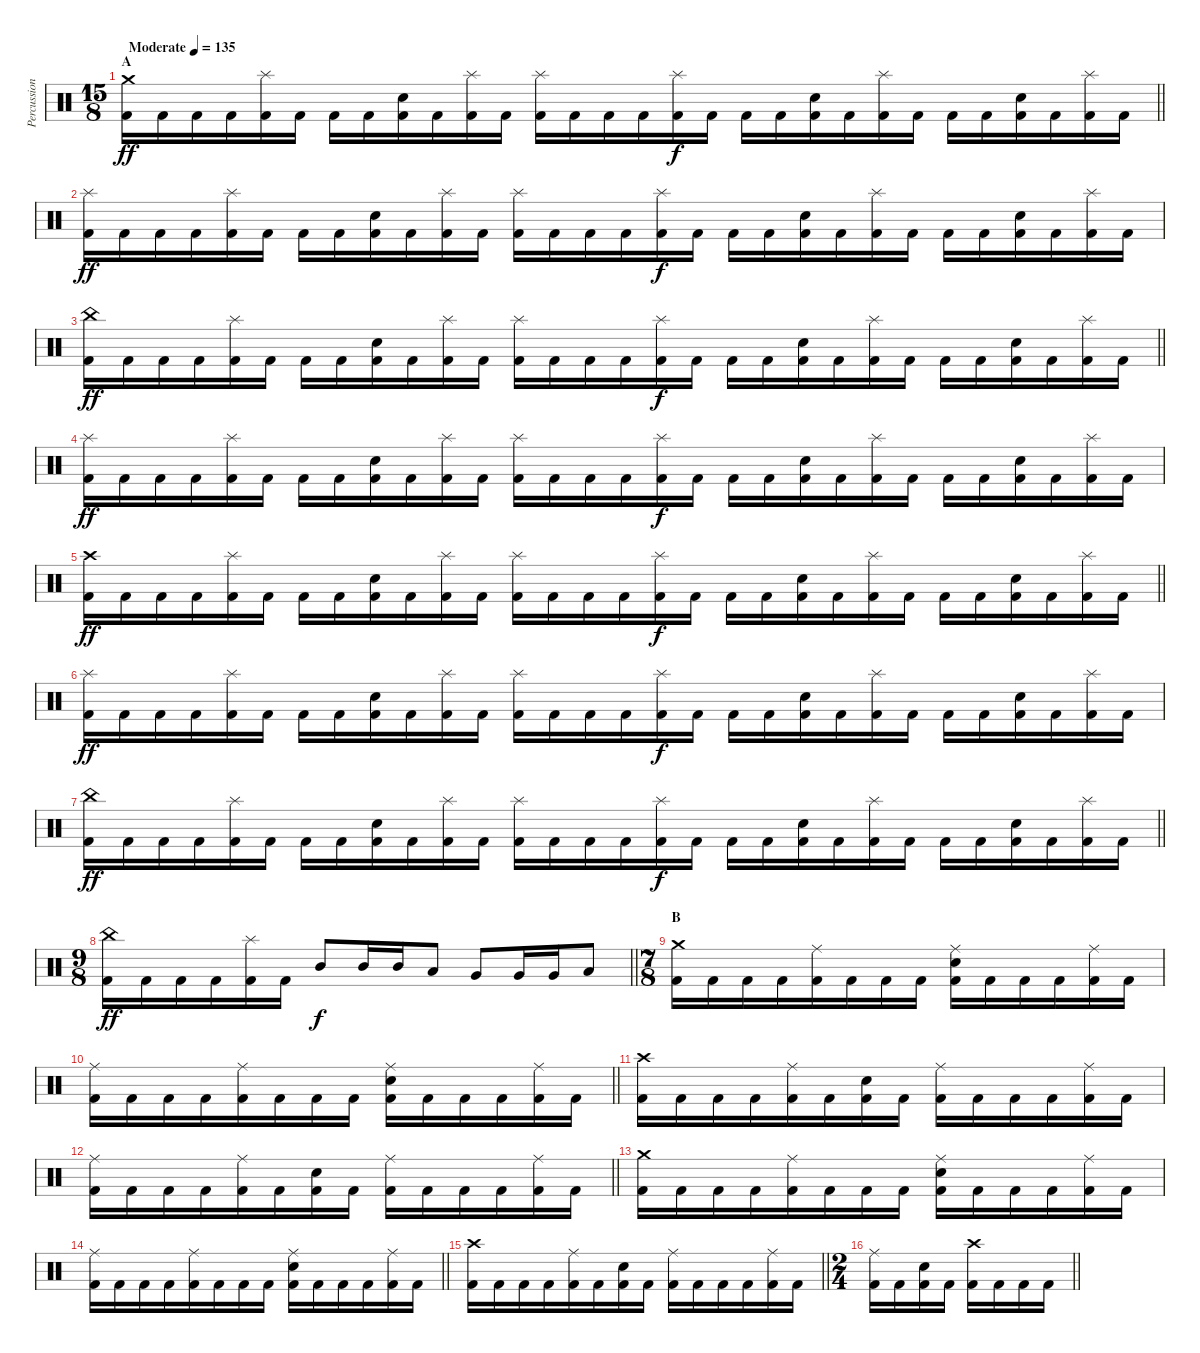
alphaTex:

\track ("Percussion" "Percussion") {instrument percussion}
\staff {score}
\articulation defaults
\ts (15 8)
\section ("" "A")
\tempo (135 "Moderate")
\clef neutral
\barLineRight lightlight
\ks c
("Crash medium (hit)" "Kick (hit) 2").16{dy ff} "Kick (hit) 2".16 "Kick (hit) 2".16 "Kick (hit) 2".16 ("Splash (hit)" "Kick (hit) 2").16 "Kick (hit) 2".16 "Kick (hit) 2".16 "Kick (hit) 2".16 ("Snare (hit) 2" "Kick (hit) 2").16 "Kick (hit) 2".16 ("Splash (hit)" "Kick (hit) 2").16 "Kick (hit) 2".16 ("Splash (hit)" "Kick (hit) 2").16 "Kick (hit) 2".16 "Kick (hit) 2".16 "Kick (hit) 2".16 ("Splash (hit)" "Kick (hit) 2").16{dy f} "Kick (hit) 2".16 "Kick (hit) 2".16 "Kick (hit) 2".16 ("Snare (hit) 2" "Kick (hit) 2").16 "Kick (hit) 2".16 ("Splash (hit)" "Kick (hit) 2").16 "Kick (hit) 2".16 "Kick (hit) 2".16 "Kick (hit) 2".16 ("Snare (hit) 2" "Kick (hit) 2").16 "Kick (hit) 2".16 ("Splash (hit)" "Kick (hit) 2").16 "Kick (hit) 2".16 |
("Splash (hit)" "Kick (hit) 2").16{dy ff} "Kick (hit) 2".16 "Kick (hit) 2".16 "Kick (hit) 2".16 ("Splash (hit)" "Kick (hit) 2").16 "Kick (hit) 2".16 "Kick (hit) 2".16 "Kick (hit) 2".16 ("Snare (hit) 2" "Kick (hit) 2").16 "Kick (hit) 2".16 ("Splash (hit)" "Kick (hit) 2").16 "Kick (hit) 2".16 ("Splash (hit)" "Kick (hit) 2").16 "Kick (hit) 2".16 "Kick (hit) 2".16 "Kick (hit) 2".16 ("Splash (hit)" "Kick (hit) 2").16{dy f} "Kick (hit) 2".16 "Kick (hit) 2".16 "Kick (hit) 2".16 ("Snare (hit) 2" "Kick (hit) 2").16 "Kick (hit) 2".16 ("Splash (hit)" "Kick (hit) 2").16 "Kick (hit) 2".16 "Kick (hit) 2".16 "Kick (hit) 2".16 ("Snare (hit) 2" "Kick (hit) 2").16 "Kick (hit) 2".16 ("Splash (hit)" "Kick (hit) 2").16 "Kick (hit) 2".16 |
\barLineRight lightlight
("China (hit)" "Kick (hit) 2").16{dy ff} "Kick (hit) 2".16 "Kick (hit) 2".16 "Kick (hit) 2".16 ("Splash (hit)" "Kick (hit) 2").16 "Kick (hit) 2".16 "Kick (hit) 2".16 "Kick (hit) 2".16 ("Snare (hit) 2" "Kick (hit) 2").16 "Kick (hit) 2".16 ("Splash (hit)" "Kick (hit) 2").16 "Kick (hit) 2".16 ("Splash (hit)" "Kick (hit) 2").16 "Kick (hit) 2".16 "Kick (hit) 2".16 "Kick (hit) 2".16 ("Splash (hit)" "Kick (hit) 2").16{dy f} "Kick (hit) 2".16 "Kick (hit) 2".16 "Kick (hit) 2".16 ("Snare (hit) 2" "Kick (hit) 2").16 "Kick (hit) 2".16 ("Splash (hit)" "Kick (hit) 2").16 "Kick (hit) 2".16 "Kick (hit) 2".16 "Kick (hit) 2".16 ("Snare (hit) 2" "Kick (hit) 2").16 "Kick (hit) 2".16 ("Splash (hit)" "Kick (hit) 2").16 "Kick (hit) 2".16 |
("Splash (hit)" "Kick (hit) 2").16{dy ff} "Kick (hit) 2".16 "Kick (hit) 2".16 "Kick (hit) 2".16 ("Splash (hit)" "Kick (hit) 2").16 "Kick (hit) 2".16 "Kick (hit) 2".16 "Kick (hit) 2".16 ("Snare (hit) 2" "Kick (hit) 2").16 "Kick (hit) 2".16 ("Splash (hit)" "Kick (hit) 2").16 "Kick (hit) 2".16 ("Splash (hit)" "Kick (hit) 2").16 "Kick (hit) 2".16 "Kick (hit) 2".16 "Kick (hit) 2".16 ("Splash (hit)" "Kick (hit) 2").16{dy f} "Kick (hit) 2".16 "Kick (hit) 2".16 "Kick (hit) 2".16 ("Snare (hit) 2" "Kick (hit) 2").16 "Kick (hit) 2".16 ("Splash (hit)" "Kick (hit) 2").16 "Kick (hit) 2".16 "Kick (hit) 2".16 "Kick (hit) 2".16 ("Snare (hit) 2" "Kick (hit) 2").16 "Kick (hit) 2".16 ("Splash (hit)" "Kick (hit) 2").16 "Kick (hit) 2".16 |
\barLineRight lightlight
("Crash high (hit)" "Kick (hit) 2").16{dy ff} "Kick (hit) 2".16 "Kick (hit) 2".16 "Kick (hit) 2".16 ("Splash (hit)" "Kick (hit) 2").16 "Kick (hit) 2".16 "Kick (hit) 2".16 "Kick (hit) 2".16 ("Snare (hit) 2" "Kick (hit) 2").16 "Kick (hit) 2".16 ("Splash (hit)" "Kick (hit) 2").16 "Kick (hit) 2".16 ("Splash (hit)" "Kick (hit) 2").16 "Kick (hit) 2".16 "Kick (hit) 2".16 "Kick (hit) 2".16 ("Splash (hit)" "Kick (hit) 2").16{dy f} "Kick (hit) 2".16 "Kick (hit) 2".16 "Kick (hit) 2".16 ("Snare (hit) 2" "Kick (hit) 2").16 "Kick (hit) 2".16 ("Splash (hit)" "Kick (hit) 2").16 "Kick (hit) 2".16 "Kick (hit) 2".16 "Kick (hit) 2".16 ("Snare (hit) 2" "Kick (hit) 2").16 "Kick (hit) 2".16 ("Splash (hit)" "Kick (hit) 2").16 "Kick (hit) 2".16 |
("Splash (hit)" "Kick (hit) 2").16{dy ff} "Kick (hit) 2".16 "Kick (hit) 2".16 "Kick (hit) 2".16 ("Splash (hit)" "Kick (hit) 2").16 "Kick (hit) 2".16 "Kick (hit) 2".16 "Kick (hit) 2".16 ("Snare (hit) 2" "Kick (hit) 2").16 "Kick (hit) 2".16 ("Splash (hit)" "Kick (hit) 2").16 "Kick (hit) 2".16 ("Splash (hit)" "Kick (hit) 2").16 "Kick (hit) 2".16 "Kick (hit) 2".16 "Kick (hit) 2".16 ("Splash (hit)" "Kick (hit) 2").16{dy f} "Kick (hit) 2".16 "Kick (hit) 2".16 "Kick (hit) 2".16 ("Snare (hit) 2" "Kick (hit) 2").16 "Kick (hit) 2".16 ("Splash (hit)" "Kick (hit) 2").16 "Kick (hit) 2".16 "Kick (hit) 2".16 "Kick (hit) 2".16 ("Snare (hit) 2" "Kick (hit) 2").16 "Kick (hit) 2".16 ("Splash (hit)" "Kick (hit) 2").16 "Kick (hit) 2".16 |
\barLineRight lightlight
("China (hit)" "Kick (hit) 2").16{dy ff} "Kick (hit) 2".16 "Kick (hit) 2".16 "Kick (hit) 2".16 ("Splash (hit)" "Kick (hit) 2").16 "Kick (hit) 2".16 "Kick (hit) 2".16 "Kick (hit) 2".16 ("Snare (hit) 2" "Kick (hit) 2").16 "Kick (hit) 2".16 ("Splash (hit)" "Kick (hit) 2").16 "Kick (hit) 2".16 ("Splash (hit)" "Kick (hit) 2").16 "Kick (hit) 2".16 "Kick (hit) 2".16 "Kick (hit) 2".16 ("Splash (hit)" "Kick (hit) 2").16{dy f} "Kick (hit) 2".16 "Kick (hit) 2".16 "Kick (hit) 2".16 ("Snare (hit) 2" "Kick (hit) 2").16 "Kick (hit) 2".16 ("Splash (hit)" "Kick (hit) 2").16 "Kick (hit) 2".16 "Kick (hit) 2".16 "Kick (hit) 2".16 ("Snare (hit) 2" "Kick (hit) 2").16 "Kick (hit) 2".16 ("Splash (hit)" "Kick (hit) 2").16 "Kick (hit) 2".16 |
\ts (9 8)
\barLineRight lightlight
("China (hit)" "Kick (hit) 2").16{dy ff} "Kick (hit) 2".16 "Kick (hit) 2".16 "Kick (hit) 2".16 ("Splash (hit)" "Kick (hit) 2").16 "Kick (hit) 2".16 "Mid Tom (hit)".8{dy f} "Mid Tom (hit)".16 "Mid Tom (hit)".16 "Low Tom (hit)".8 "Very Low Tom (hit)".8 "Very Low Tom (hit)".16 "Very Low Tom (hit)".16 "Low Floor Tom (hit)".8 |
\ts (7 8)
\section ("" "B")
("Crash medium (hit)" "Kick (hit) 2").16 "Kick (hit) 2".16 "Kick (hit) 2".16 "Kick (hit) 2".16 ("Ride (middle)" "Kick (hit) 2").16 "Kick (hit) 2".16 "Kick (hit) 2".16 "Kick (hit) 2".16 ("Ride (middle)" "Snare (hit) 2" "Kick (hit) 2").16 "Kick (hit) 2".16 "Kick (hit) 2".16 "Kick (hit) 2".16 ("Ride (middle)" "Kick (hit) 2").16 "Kick (hit) 2".16 |
\barLineRight lightlight
("Ride (middle)" "Kick (hit) 2").16 "Kick (hit) 2".16 "Kick (hit) 2".16 "Kick (hit) 2".16 ("Ride (middle)" "Kick (hit) 2").16 "Kick (hit) 2".16 "Kick (hit) 2".16 "Kick (hit) 2".16 ("Ride (middle)" "Snare (hit) 2" "Kick (hit) 2").16 "Kick (hit) 2".16 "Kick (hit) 2".16 "Kick (hit) 2".16 ("Ride (middle)" "Kick (hit) 2").16 "Kick (hit) 2".16 |
("Crash high (hit)" "Kick (hit) 2").16 "Kick (hit) 2".16 "Kick (hit) 2".16 "Kick (hit) 2".16 ("Ride (middle)" "Kick (hit) 2").16 "Kick (hit) 2".16 ("Snare (hit) 2" "Kick (hit) 2").16 "Kick (hit) 2".16 ("Ride (middle)" "Kick (hit) 2").16 "Kick (hit) 2".16 "Kick (hit) 2".16 "Kick (hit) 2".16 ("Ride (middle)" "Kick (hit) 2").16 "Kick (hit) 2".16 |
\barLineRight lightlight
("Ride (middle)" "Kick (hit) 2").16 "Kick (hit) 2".16 "Kick (hit) 2".16 "Kick (hit) 2".16 ("Ride (middle)" "Kick (hit) 2").16 "Kick (hit) 2".16 ("Snare (hit) 2" "Kick (hit) 2").16 "Kick (hit) 2".16 ("Ride (middle)" "Kick (hit) 2").16 "Kick (hit) 2".16 "Kick (hit) 2".16 "Kick (hit) 2".16 ("Ride (middle)" "Kick (hit) 2").16 "Kick (hit) 2".16 |
("Crash medium (hit)" "Kick (hit) 2").16 "Kick (hit) 2".16 "Kick (hit) 2".16 "Kick (hit) 2".16 ("Ride (middle)" "Kick (hit) 2").16 "Kick (hit) 2".16 "Kick (hit) 2".16 "Kick (hit) 2".16 ("Ride (middle)" "Snare (hit) 2" "Kick (hit) 2").16 "Kick (hit) 2".16 "Kick (hit) 2".16 "Kick (hit) 2".16 ("Ride (middle)" "Kick (hit) 2").16 "Kick (hit) 2".16 |
\barLineRight lightlight
("Ride (middle)" "Kick (hit) 2").16 "Kick (hit) 2".16 "Kick (hit) 2".16 "Kick (hit) 2".16 ("Ride (middle)" "Kick (hit) 2").16 "Kick (hit) 2".16 "Kick (hit) 2".16 "Kick (hit) 2".16 ("Ride (middle)" "Snare (hit) 2" "Kick (hit) 2").16 "Kick (hit) 2".16 "Kick (hit) 2".16 "Kick (hit) 2".16 ("Ride (middle)" "Kick (hit) 2").16 "Kick (hit) 2".16 |
\barLineRight lightlight
("Crash high (hit)" "Kick (hit) 2").16 "Kick (hit) 2".16 "Kick (hit) 2".16 "Kick (hit) 2".16 ("Ride (middle)" "Kick (hit) 2").16 "Kick (hit) 2".16 ("Snare (hit) 2" "Kick (hit) 2").16 "Kick (hit) 2".16 ("Ride (middle)" "Kick (hit) 2").16 "Kick (hit) 2".16 "Kick (hit) 2".16 "Kick (hit) 2".16 ("Ride (middle)" "Kick (hit) 2").16 "Kick (hit) 2".16 |
\ts (2 4)
\barLineRight lightlight
("Ride (middle)" "Kick (hit) 2").16 "Kick (hit) 2".16 ("Snare (hit) 2" "Kick (hit) 2").16 "Kick (hit) 2".16 ("Crash high (hit)" "Kick (hit) 2").16 "Kick (hit) 2".16 "Kick (hit) 2".16 "Kick (hit) 2".16
